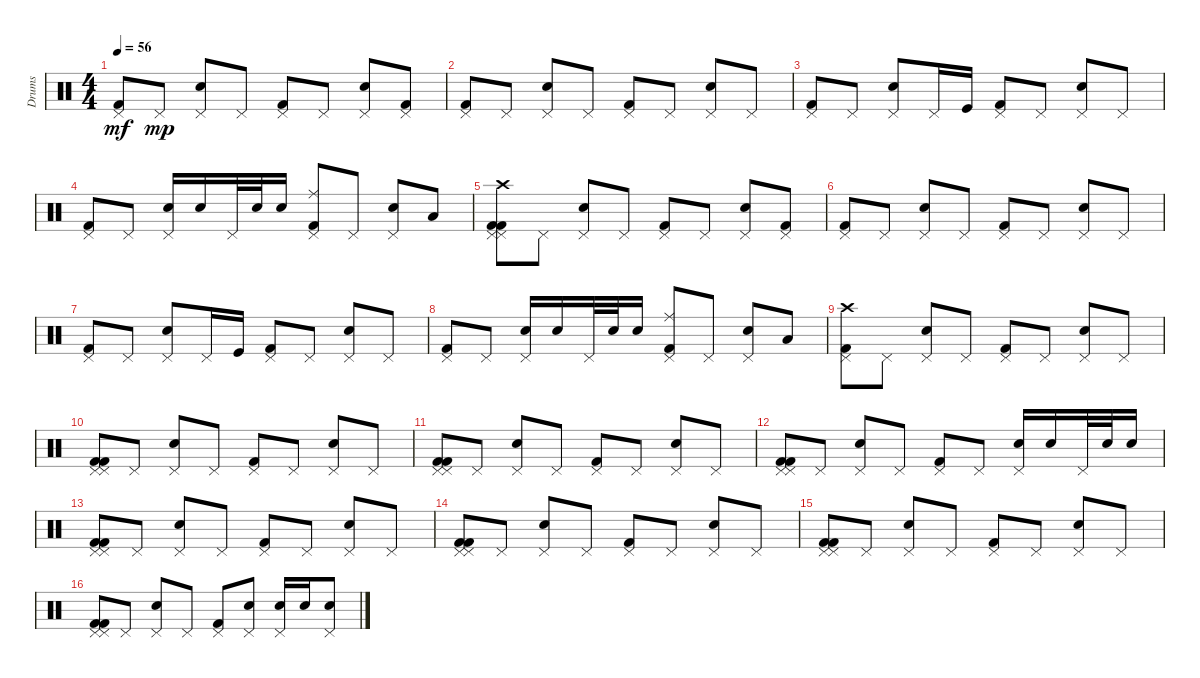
\track ("Drums" "Drums") {instrument percussion}
\staff {score}
\articulation defaults
\ts (4 4)
\tempo 56
\clef neutral
\ks c
("Pedal Hi-Hat (hit)" "Kick (hit) 2").8{dy mf} "Pedal Hi-Hat (hit)".8{dy mp} ("Pedal Hi-Hat (hit)" "Snare (hit) 2").8 "Pedal Hi-Hat (hit)".8 ("Pedal Hi-Hat (hit)" "Kick (hit) 2").8 "Pedal Hi-Hat (hit)".8 ("Pedal Hi-Hat (hit)" "Snare (hit) 2").8 ("Pedal Hi-Hat (hit)" "Kick (hit) 2").8 |
("Pedal Hi-Hat (hit)" "Kick (hit) 2").8 "Pedal Hi-Hat (hit)".8 ("Pedal Hi-Hat (hit)" "Snare (hit) 2").8 "Pedal Hi-Hat (hit)".8 ("Pedal Hi-Hat (hit)" "Kick (hit) 2").8 "Pedal Hi-Hat (hit)".8 ("Pedal Hi-Hat (hit)" "Snare (hit) 2").8 "Pedal Hi-Hat (hit)".8 |
("Pedal Hi-Hat (hit)" "Kick (hit) 2").8 "Pedal Hi-Hat (hit)".8 ("Pedal Hi-Hat (hit)" "Snare (hit) 2").8 "Pedal Hi-Hat (hit)".16 "Kick (hit)".16 ("Pedal Hi-Hat (hit)" "Kick (hit) 2").8 "Pedal Hi-Hat (hit)".8 ("Pedal Hi-Hat (hit)" "Snare (hit) 2").8 "Pedal Hi-Hat (hit)".8 |
("Pedal Hi-Hat (hit)" "Kick (hit) 2").8 "Pedal Hi-Hat (hit)".8 ("Pedal Hi-Hat (hit)" "Snare (hit) 2").16 "Electric Snare (hit)".16 "Pedal Hi-Hat (hit)".32 "Electric Snare (hit)".32 "Electric Snare (hit)".16 ("Ride (middle)" "Pedal Hi-Hat (hit)" "Kick (hit) 2").8 "Pedal Hi-Hat (hit)".8 ("Pedal Hi-Hat (hit)" "Snare (hit) 2").8 "Low Floor Tom (hit)".8 |
("Kick (hit) 2" "Pedal Hi-Hat (hit)" "Crash high (hit)" "Pedal Hi-Hat (hit)" "Kick (hit) 2").8 "Pedal Hi-Hat (hit)".8 ("Snare (hit) 2" "Pedal Hi-Hat (hit)").8 "Pedal Hi-Hat (hit)".8 ("Kick (hit) 2" "Pedal Hi-Hat (hit)").8 "Pedal Hi-Hat (hit)".8 ("Snare (hit) 2" "Pedal Hi-Hat (hit)").8 ("Kick (hit) 2" "Pedal Hi-Hat (hit)").8 |
("Kick (hit) 2" "Pedal Hi-Hat (hit)").8 "Pedal Hi-Hat (hit)".8 ("Snare (hit) 2" "Pedal Hi-Hat (hit)").8 "Pedal Hi-Hat (hit)".8 ("Kick (hit) 2" "Pedal Hi-Hat (hit)").8 "Pedal Hi-Hat (hit)".8 ("Snare (hit) 2" "Pedal Hi-Hat (hit)").8 "Pedal Hi-Hat (hit)".8 |
("Kick (hit) 2" "Pedal Hi-Hat (hit)").8 "Pedal Hi-Hat (hit)".8 ("Snare (hit) 2" "Pedal Hi-Hat (hit)").8 "Pedal Hi-Hat (hit)".16 "Kick (hit)".16 ("Kick (hit) 2" "Pedal Hi-Hat (hit)").8 "Pedal Hi-Hat (hit)".8 ("Snare (hit) 2" "Pedal Hi-Hat (hit)").8 "Pedal Hi-Hat (hit)".8 |
("Kick (hit) 2" "Pedal Hi-Hat (hit)").8 "Pedal Hi-Hat (hit)".8 ("Snare (hit) 2" "Pedal Hi-Hat (hit)").16 "Electric Snare (hit)".16 "Pedal Hi-Hat (hit)".32 "Electric Snare (hit)".32 "Electric Snare (hit)".16 ("Kick (hit) 2" "Pedal Hi-Hat (hit)" "Ride (middle)").8 "Pedal Hi-Hat (hit)".8 ("Snare (hit) 2" "Pedal Hi-Hat (hit)").8 "Low Floor Tom (hit)".8 |
("Pedal Hi-Hat (hit)" "Kick (hit) 2" "Crash high (hit)").8 "Pedal Hi-Hat (hit)".8 ("Pedal Hi-Hat (hit)" "Snare (hit) 2").8 "Pedal Hi-Hat (hit)".8 ("Pedal Hi-Hat (hit)" "Kick (hit) 2").8 "Pedal Hi-Hat (hit)".8 ("Pedal Hi-Hat (hit)" "Snare (hit) 2").8 "Pedal Hi-Hat (hit)".8 |
("Kick (hit) 2" "Pedal Hi-Hat (hit)" "Pedal Hi-Hat (hit)" "Kick (hit) 2").8 "Pedal Hi-Hat (hit)".8 ("Snare (hit) 2" "Pedal Hi-Hat (hit)").8 "Pedal Hi-Hat (hit)".8 ("Kick (hit) 2" "Pedal Hi-Hat (hit)").8 "Pedal Hi-Hat (hit)".8 ("Snare (hit) 2" "Pedal Hi-Hat (hit)").8 "Pedal Hi-Hat (hit)".8 |
("Kick (hit) 2" "Pedal Hi-Hat (hit)" "Kick (hit) 2" "Pedal Hi-Hat (hit)").8 "Pedal Hi-Hat (hit)".8 ("Snare (hit) 2" "Pedal Hi-Hat (hit)").8 "Pedal Hi-Hat (hit)".8 ("Kick (hit) 2" "Pedal Hi-Hat (hit)").8 "Pedal Hi-Hat (hit)".8 ("Snare (hit) 2" "Pedal Hi-Hat (hit)").8 "Pedal Hi-Hat (hit)".8 |
("Kick (hit) 2" "Pedal Hi-Hat (hit)" "Pedal Hi-Hat (hit)" "Kick (hit) 2").8 "Pedal Hi-Hat (hit)".8 ("Pedal Hi-Hat (hit)" "Snare (hit) 2").8 "Pedal Hi-Hat (hit)".8 ("Pedal Hi-Hat (hit)" "Kick (hit) 2").8 "Pedal Hi-Hat (hit)".8 ("Pedal Hi-Hat (hit)" "Snare (hit) 2").16 "Electric Snare (hit)".16 "Pedal Hi-Hat (hit)".32 "Electric Snare (hit)".32 "Electric Snare (hit)".16 |
("Kick (hit) 2" "Pedal Hi-Hat (hit)" "Pedal Hi-Hat (hit)" "Kick (hit) 2").8 "Pedal Hi-Hat (hit)".8 ("Snare (hit) 2" "Pedal Hi-Hat (hit)").8 "Pedal Hi-Hat (hit)".8 ("Kick (hit) 2" "Pedal Hi-Hat (hit)").8 "Pedal Hi-Hat (hit)".8 ("Snare (hit) 2" "Pedal Hi-Hat (hit)").8 "Pedal Hi-Hat (hit)".8 |
("Kick (hit) 2" "Pedal Hi-Hat (hit)" "Pedal Hi-Hat (hit)" "Kick (hit) 2").8 "Pedal Hi-Hat (hit)".8 ("Pedal Hi-Hat (hit)" "Snare (hit) 2").8 "Pedal Hi-Hat (hit)".8 ("Pedal Hi-Hat (hit)" "Kick (hit) 2").8 "Pedal Hi-Hat (hit)".8 ("Pedal Hi-Hat (hit)" "Snare (hit) 2").8 "Pedal Hi-Hat (hit)".8 |
("Pedal Hi-Hat (hit)" "Kick (hit) 2" "Pedal Hi-Hat (hit)" "Kick (hit) 2").8 "Pedal Hi-Hat (hit)".8 ("Pedal Hi-Hat (hit)" "Snare (hit) 2").8 "Pedal Hi-Hat (hit)".8 ("Pedal Hi-Hat (hit)" "Kick (hit) 2").8 "Pedal Hi-Hat (hit)".8 ("Pedal Hi-Hat (hit)" "Snare (hit) 2").8 "Pedal Hi-Hat (hit)".8 |
("Kick (hit) 2" "Pedal Hi-Hat (hit)" "Pedal Hi-Hat (hit)" "Kick (hit) 2").8 "Pedal Hi-Hat (hit)".8 ("Snare (hit) 2" "Pedal Hi-Hat (hit)").8 "Pedal Hi-Hat (hit)".8 ("Kick (hit) 2" "Pedal Hi-Hat (hit)").8 ("Electric Snare (hit)" "Pedal Hi-Hat (hit)").8 ("Snare (hit) 2" "Pedal Hi-Hat (hit)").16 "Electric Snare (hit)".16 ("Electric Snare (hit)" "Pedal Hi-Hat (hit)").8
